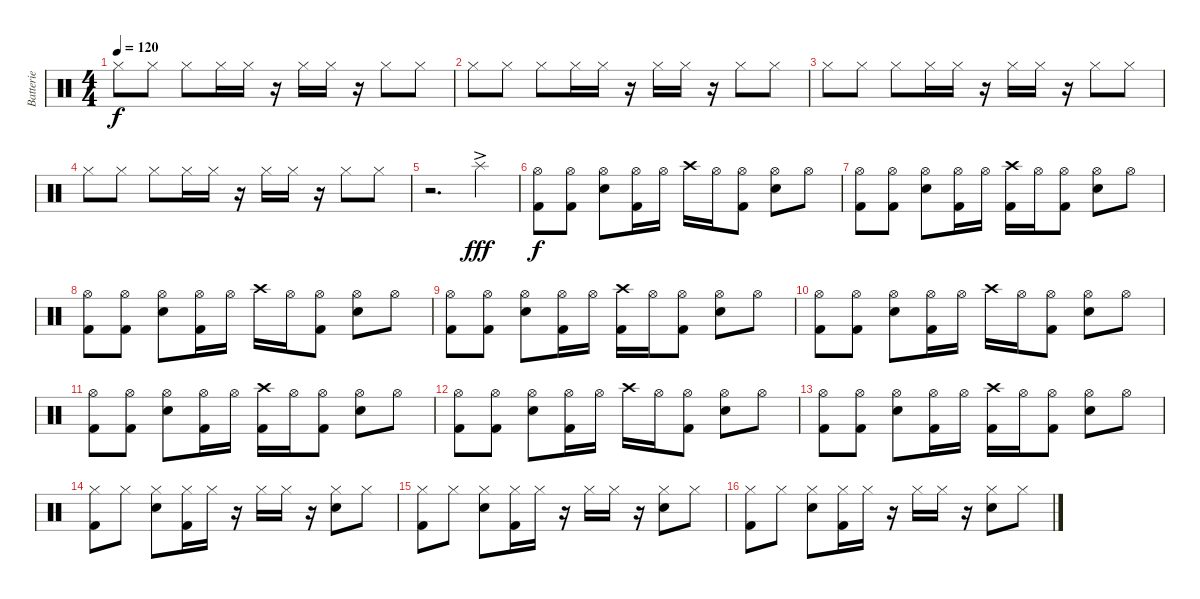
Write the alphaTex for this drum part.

\track ("Batterie" "Batterie") {instrument percussion}
\staff {score}
\articulation defaults
\ts (4 4)
\tempo 120
\clef neutral
\ks c "Hi-Hat (closed)".8{dy f} "Hi-Hat (closed)".8 "Hi-Hat (closed)".8 "Hi-Hat (closed)".16 "Hi-Hat (closed)".16
r.16 "Hi-Hat (closed)".16 "Hi-Hat (closed)".16 r.16 "Hi-Hat (closed)".8 "Hi-Hat (closed)".8 |
"Hi-Hat (closed)".8 "Hi-Hat (closed)".8 "Hi-Hat (closed)".8 "Hi-Hat (closed)".16 "Hi-Hat (closed)".16 r.16 "Hi-Hat (closed)".16 "Hi-Hat (closed)".16 r.16 "Hi-Hat (closed)".8 "Hi-Hat (closed)".8 |
"Hi-Hat (closed)".8 "Hi-Hat (closed)".8 "Hi-Hat (closed)".8 "Hi-Hat (closed)".16 "Hi-Hat (closed)".16 r.16 "Hi-Hat (closed)".16 "Hi-Hat (closed)".16 r.16 "Hi-Hat (closed)".8 "Hi-Hat (closed)".8 |
"Hi-Hat (closed)".8 "Hi-Hat (closed)".8 "Hi-Hat (closed)".8 "Hi-Hat (closed)".16 "Hi-Hat (closed)".16 r.16 "Hi-Hat (closed)".16 "Hi-Hat (closed)".16 r.16 "Hi-Hat (closed)".8 "Hi-Hat (closed)".8 |
r.2{d} "Splash (hit)"{ac}.4{dy fff} |
("Hi-Hat (open)" "Kick (hit) 2").8{dy f} ("Hi-Hat (open)" "Kick (hit) 2").8 ("Hi-Hat (open)" "Snare (hit) 2").8 ("Hi-Hat (open)" "Kick (hit) 2").16 "Hi-Hat (open)".16 "Crash high (hit)".16 "Hi-Hat (open)".16 ("Hi-Hat (open)" "Kick (hit) 2").8 ("Hi-Hat (open)" "Snare (hit) 2").8 "Hi-Hat (open)".8 |
("Hi-Hat (open)" "Kick (hit) 2").8 ("Hi-Hat (open)" "Kick (hit) 2").8 ("Hi-Hat (open)" "Snare (hit) 2").8 ("Hi-Hat (open)" "Kick (hit) 2").16 "Hi-Hat (open)".16 ("Crash high (hit)" "Kick (hit) 2").16 "Hi-Hat (open)".16 ("Hi-Hat (open)" "Kick (hit) 2").8 ("Hi-Hat (open)" "Snare (hit) 2").8 "Hi-Hat (open)".8 |
("Hi-Hat (open)" "Kick (hit) 2").8 ("Hi-Hat (open)" "Kick (hit) 2").8 ("Hi-Hat (open)" "Snare (hit) 2").8 ("Hi-Hat (open)" "Kick (hit) 2").16 "Hi-Hat (open)".16 "Crash high (hit)".16 "Hi-Hat (open)".16 ("Hi-Hat (open)" "Kick (hit) 2").8 ("Hi-Hat (open)" "Snare (hit) 2").8 "Hi-Hat (open)".8 |
("Hi-Hat (open)" "Kick (hit) 2").8 ("Hi-Hat (open)" "Kick (hit) 2").8 ("Hi-Hat (open)" "Snare (hit) 2").8 ("Hi-Hat (open)" "Kick (hit) 2").16 "Hi-Hat (open)".16 ("Crash high (hit)" "Kick (hit) 2").16 "Hi-Hat (open)".16 ("Hi-Hat (open)" "Kick (hit) 2").8 ("Hi-Hat (open)" "Snare (hit) 2").8 "Hi-Hat (open)".8 |
("Hi-Hat (open)" "Kick (hit) 2").8 ("Hi-Hat (open)" "Kick (hit) 2").8 ("Hi-Hat (open)" "Snare (hit) 2").8 ("Hi-Hat (open)" "Kick (hit) 2").16 "Hi-Hat (open)".16 "Crash high (hit)".16 "Hi-Hat (open)".16 ("Hi-Hat (open)" "Kick (hit) 2").8 ("Hi-Hat (open)" "Snare (hit) 2").8 "Hi-Hat (open)".8 |
("Hi-Hat (open)" "Kick (hit) 2").8 ("Hi-Hat (open)" "Kick (hit) 2").8 ("Hi-Hat (open)" "Snare (hit) 2").8 ("Hi-Hat (open)" "Kick (hit) 2").16 "Hi-Hat (open)".16 ("Crash high (hit)" "Kick (hit) 2").16 "Hi-Hat (open)".16 ("Hi-Hat (open)" "Kick (hit) 2").8 ("Hi-Hat (open)" "Snare (hit) 2").8 "Hi-Hat (open)".8 |
("Hi-Hat (open)" "Kick (hit) 2").8 ("Hi-Hat (open)" "Kick (hit) 2").8 ("Hi-Hat (open)" "Snare (hit) 2").8 ("Hi-Hat (open)" "Kick (hit) 2").16 "Hi-Hat (open)".16 "Crash high (hit)".16 "Hi-Hat (open)".16 ("Hi-Hat (open)" "Kick (hit) 2").8 ("Hi-Hat (open)" "Snare (hit) 2").8 "Hi-Hat (open)".8 |
("Hi-Hat (open)" "Kick (hit) 2").8 ("Hi-Hat (open)" "Kick (hit) 2").8 ("Hi-Hat (open)" "Snare (hit) 2").8 ("Hi-Hat (open)" "Kick (hit) 2").16 "Hi-Hat (open)".16 ("Crash high (hit)" "Kick (hit) 2").16 "Hi-Hat (open)".16 ("Hi-Hat (open)" "Kick (hit) 2").8 ("Hi-Hat (open)" "Snare (hit) 2").8 "Hi-Hat (open)".8 |
("Hi-Hat (closed)" "Kick (hit) 2").8 "Hi-Hat (closed)".8 ("Hi-Hat (closed)" "Snare (hit) 2").8 ("Hi-Hat (closed)" "Kick (hit) 2").16 "Hi-Hat (closed)".16 r.16 "Hi-Hat (closed)".16 "Hi-Hat (closed)".16 r.16 ("Hi-Hat (closed)" "Snare (hit) 2").8 "Hi-Hat (closed)".8 |
("Hi-Hat (closed)" "Kick (hit) 2").8 "Hi-Hat (closed)".8 ("Hi-Hat (closed)" "Snare (hit) 2").8 ("Hi-Hat (closed)" "Kick (hit) 2").16 "Hi-Hat (closed)".16 r.16 "Hi-Hat (closed)".16 "Hi-Hat (closed)".16 r.16 ("Hi-Hat (closed)" "Snare (hit) 2").8 "Hi-Hat (closed)".8 |
("Hi-Hat (closed)" "Kick (hit) 2").8 "Hi-Hat (closed)".8 ("Hi-Hat (closed)" "Snare (hit) 2").8 ("Hi-Hat (closed)" "Kick (hit) 2").16 "Hi-Hat (closed)".16 r.16 "Hi-Hat (closed)".16 "Hi-Hat (closed)".16 r.16 ("Hi-Hat (closed)" "Snare (hit) 2").8 "Hi-Hat (closed)".8
